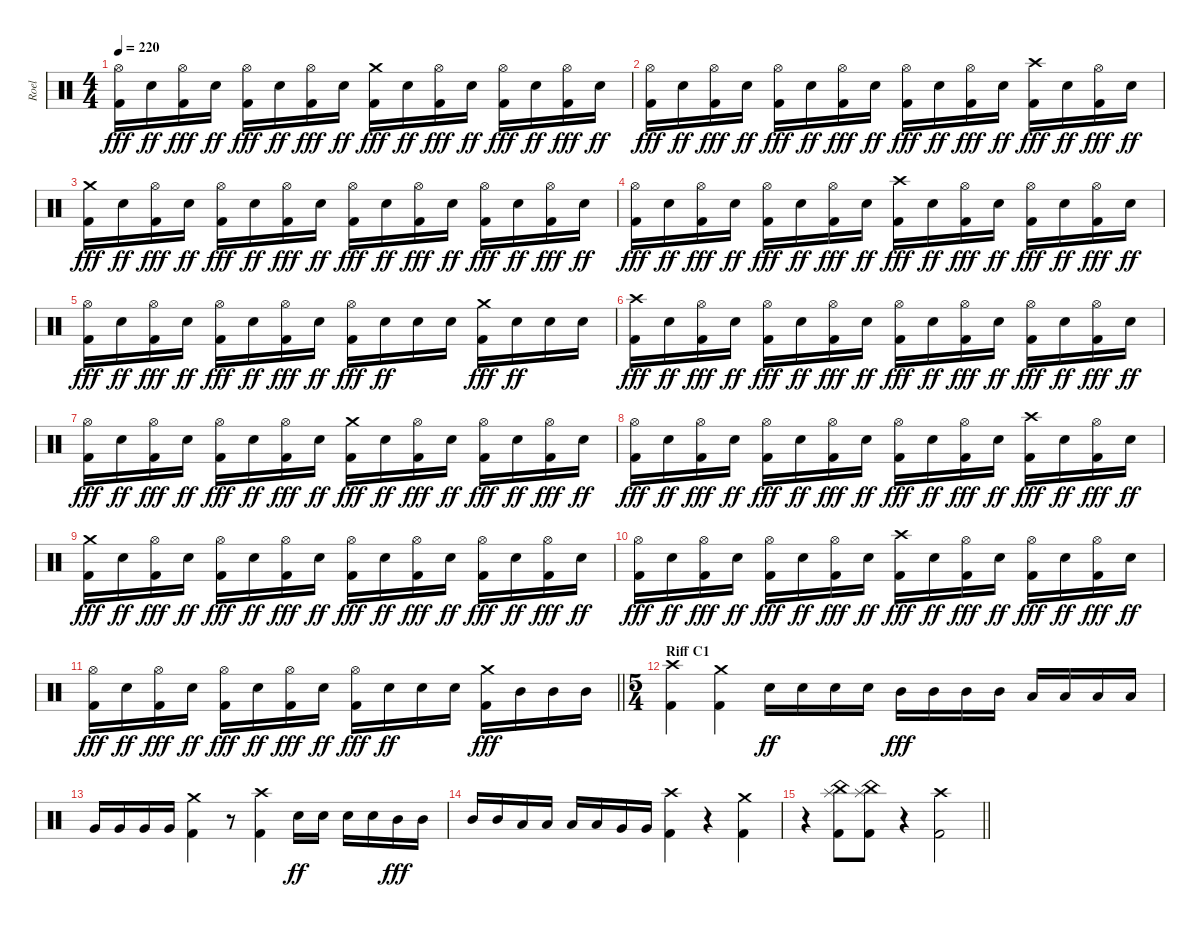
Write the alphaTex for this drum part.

\track ("Roel" "Roel") {instrument percussion}
\staff {score}
\articulation defaults
\ts (4 4)
\tempo 220
\clef neutral
\ks c
("Hi-Hat (open)" "Kick (hit) 2").16{dy fff} "Snare (hit) 2".16{dy ff} ("Hi-Hat (open)" "Kick (hit) 2").16{dy fff} "Snare (hit) 2".16{dy ff} ("Hi-Hat (open)" "Kick (hit) 2").16{dy fff} "Snare (hit) 2".16{dy ff} ("Hi-Hat (open)" "Kick (hit) 2").16{dy fff} "Snare (hit) 2".16{dy ff} ("Crash medium (hit)" "Kick (hit) 2").16{dy fff} "Snare (hit) 2".16{dy ff} ("Hi-Hat (open)" "Kick (hit) 2").16{dy fff} "Snare (hit) 2".16{dy ff} ("Hi-Hat (open)" "Kick (hit) 2").16{dy fff} "Snare (hit) 2".16{dy ff} ("Hi-Hat (open)" "Kick (hit) 2").16{dy fff} "Snare (hit) 2".16{dy ff} |
("Hi-Hat (open)" "Kick (hit) 2").16{dy fff} "Snare (hit) 2".16{dy ff} ("Hi-Hat (open)" "Kick (hit) 2").16{dy fff} "Snare (hit) 2".16{dy ff} ("Hi-Hat (open)" "Kick (hit) 2").16{dy fff} "Snare (hit) 2".16{dy ff} ("Hi-Hat (open)" "Kick (hit) 2").16{dy fff} "Snare (hit) 2".16{dy ff} ("Hi-Hat (open)" "Kick (hit) 2").16{dy fff} "Snare (hit) 2".16{dy ff} ("Hi-Hat (open)" "Kick (hit) 2").16{dy fff} "Snare (hit) 2".16{dy ff} ("Crash high (hit)" "Kick (hit) 2").16{dy fff} "Snare (hit) 2".16{dy ff} ("Hi-Hat (open)" "Kick (hit) 2").16{dy fff} "Snare (hit) 2".16{dy ff} |
("Crash medium (hit)" "Kick (hit) 2").16{dy fff} "Snare (hit) 2".16{dy ff} ("Hi-Hat (open)" "Kick (hit) 2").16{dy fff} "Snare (hit) 2".16{dy ff} ("Hi-Hat (open)" "Kick (hit) 2").16{dy fff} "Snare (hit) 2".16{dy ff} ("Hi-Hat (open)" "Kick (hit) 2").16{dy fff} "Snare (hit) 2".16{dy ff} ("Hi-Hat (open)" "Kick (hit) 2").16{dy fff} "Snare (hit) 2".16{dy ff} ("Hi-Hat (open)" "Kick (hit) 2").16{dy fff} "Snare (hit) 2".16{dy ff} ("Hi-Hat (open)" "Kick (hit) 2").16{dy fff} "Snare (hit) 2".16{dy ff} ("Hi-Hat (open)" "Kick (hit) 2").16{dy fff} "Snare (hit) 2".16{dy ff} |
("Hi-Hat (open)" "Kick (hit) 2").16{dy fff} "Snare (hit) 2".16{dy ff} ("Hi-Hat (open)" "Kick (hit) 2").16{dy fff} "Snare (hit) 2".16{dy ff} ("Hi-Hat (open)" "Kick (hit) 2").16{dy fff} "Snare (hit) 2".16{dy ff} ("Hi-Hat (open)" "Kick (hit) 2").16{dy fff} "Snare (hit) 2".16{dy ff} ("Crash high (hit)" "Kick (hit) 2").16{dy fff} "Snare (hit) 2".16{dy ff} ("Hi-Hat (open)" "Kick (hit) 2").16{dy fff} "Snare (hit) 2".16{dy ff} ("Hi-Hat (open)" "Kick (hit) 2").16{dy fff} "Snare (hit) 2".16{dy ff} ("Hi-Hat (open)" "Kick (hit) 2").16{dy fff} "Snare (hit) 2".16{dy ff} |
("Hi-Hat (open)" "Kick (hit) 2").16{dy fff} "Snare (hit) 2".16{dy ff} ("Hi-Hat (open)" "Kick (hit) 2").16{dy fff} "Snare (hit) 2".16{dy ff} ("Hi-Hat (open)" "Kick (hit) 2").16{dy fff} "Snare (hit) 2".16{dy ff} ("Hi-Hat (open)" "Kick (hit) 2").16{dy fff} "Snare (hit) 2".16{dy ff} ("Hi-Hat (open)" "Kick (hit) 2").16{dy fff} "Snare (hit) 2".16{dy ff} "Snare (hit) 2".16 "Snare (hit) 2".16 ("Crash medium (hit)" "Kick (hit) 2").16{dy fff} "Snare (hit) 2".16{dy ff} "Snare (hit) 2".16 "Snare (hit) 2".16 |
("Crash high (hit)" "Kick (hit) 2").16{dy fff} "Snare (hit) 2".16{dy ff} ("Hi-Hat (open)" "Kick (hit) 2").16{dy fff} "Snare (hit) 2".16{dy ff} ("Hi-Hat (open)" "Kick (hit) 2").16{dy fff} "Snare (hit) 2".16{dy ff} ("Hi-Hat (open)" "Kick (hit) 2").16{dy fff} "Snare (hit) 2".16{dy ff} ("Hi-Hat (open)" "Kick (hit) 2").16{dy fff} "Snare (hit) 2".16{dy ff} ("Hi-Hat (open)" "Kick (hit) 2").16{dy fff} "Snare (hit) 2".16{dy ff} ("Hi-Hat (open)" "Kick (hit) 2").16{dy fff} "Snare (hit) 2".16{dy ff} ("Hi-Hat (open)" "Kick (hit) 2").16{dy fff} "Snare (hit) 2".16{dy ff} |
("Hi-Hat (open)" "Kick (hit) 2").16{dy fff} "Snare (hit) 2".16{dy ff} ("Hi-Hat (open)" "Kick (hit) 2").16{dy fff} "Snare (hit) 2".16{dy ff} ("Hi-Hat (open)" "Kick (hit) 2").16{dy fff} "Snare (hit) 2".16{dy ff} ("Hi-Hat (open)" "Kick (hit) 2").16{dy fff} "Snare (hit) 2".16{dy ff} ("Crash medium (hit)" "Kick (hit) 2").16{dy fff} "Snare (hit) 2".16{dy ff} ("Hi-Hat (open)" "Kick (hit) 2").16{dy fff} "Snare (hit) 2".16{dy ff} ("Hi-Hat (open)" "Kick (hit) 2").16{dy fff} "Snare (hit) 2".16{dy ff} ("Hi-Hat (open)" "Kick (hit) 2").16{dy fff} "Snare (hit) 2".16{dy ff} |
("Hi-Hat (open)" "Kick (hit) 2").16{dy fff} "Snare (hit) 2".16{dy ff} ("Hi-Hat (open)" "Kick (hit) 2").16{dy fff} "Snare (hit) 2".16{dy ff} ("Hi-Hat (open)" "Kick (hit) 2").16{dy fff} "Snare (hit) 2".16{dy ff} ("Hi-Hat (open)" "Kick (hit) 2").16{dy fff} "Snare (hit) 2".16{dy ff} ("Hi-Hat (open)" "Kick (hit) 2").16{dy fff} "Snare (hit) 2".16{dy ff} ("Hi-Hat (open)" "Kick (hit) 2").16{dy fff} "Snare (hit) 2".16{dy ff} ("Crash high (hit)" "Kick (hit) 2").16{dy fff} "Snare (hit) 2".16{dy ff} ("Hi-Hat (open)" "Kick (hit) 2").16{dy fff} "Snare (hit) 2".16{dy ff} |
("Crash medium (hit)" "Kick (hit) 2").16{dy fff} "Snare (hit) 2".16{dy ff} ("Hi-Hat (open)" "Kick (hit) 2").16{dy fff} "Snare (hit) 2".16{dy ff} ("Hi-Hat (open)" "Kick (hit) 2").16{dy fff} "Snare (hit) 2".16{dy ff} ("Hi-Hat (open)" "Kick (hit) 2").16{dy fff} "Snare (hit) 2".16{dy ff} ("Hi-Hat (open)" "Kick (hit) 2").16{dy fff} "Snare (hit) 2".16{dy ff} ("Hi-Hat (open)" "Kick (hit) 2").16{dy fff} "Snare (hit) 2".16{dy ff} ("Hi-Hat (open)" "Kick (hit) 2").16{dy fff} "Snare (hit) 2".16{dy ff} ("Hi-Hat (open)" "Kick (hit) 2").16{dy fff} "Snare (hit) 2".16{dy ff} |
("Hi-Hat (open)" "Kick (hit) 2").16{dy fff} "Snare (hit) 2".16{dy ff} ("Hi-Hat (open)" "Kick (hit) 2").16{dy fff} "Snare (hit) 2".16{dy ff} ("Hi-Hat (open)" "Kick (hit) 2").16{dy fff} "Snare (hit) 2".16{dy ff} ("Hi-Hat (open)" "Kick (hit) 2").16{dy fff} "Snare (hit) 2".16{dy ff} ("Crash high (hit)" "Kick (hit) 2").16{dy fff} "Snare (hit) 2".16{dy ff} ("Hi-Hat (open)" "Kick (hit) 2").16{dy fff} "Snare (hit) 2".16{dy ff} ("Hi-Hat (open)" "Kick (hit) 2").16{dy fff} "Snare (hit) 2".16{dy ff} ("Hi-Hat (open)" "Kick (hit) 2").16{dy fff} "Snare (hit) 2".16{dy ff} |
\barLineRight lightlight
("Hi-Hat (open)" "Kick (hit) 2").16{dy fff} "Snare (hit) 2".16{dy ff} ("Hi-Hat (open)" "Kick (hit) 2").16{dy fff} "Snare (hit) 2".16{dy ff} ("Hi-Hat (open)" "Kick (hit) 2").16{dy fff} "Snare (hit) 2".16{dy ff} ("Hi-Hat (open)" "Kick (hit) 2").16{dy fff} "Snare (hit) 2".16{dy ff} ("Hi-Hat (open)" "Kick (hit) 2").16{dy fff} "Snare (hit) 2".16{dy ff} "Snare (hit) 2".16 "Snare (hit) 2".16 ("Crash medium (hit)" "Kick (hit) 2").16{dy fff} "Mid Tom (hit)".16 "Mid Tom (hit)".16 "Mid Tom (hit)".16 |
\ts (5 4)
\section ("" "Riff C1")
("Crash high (hit)" "Kick (hit) 2").4 ("Crash medium (hit)" "Kick (hit) 2").4 "Snare (hit) 2".16{dy ff} "Snare (hit) 2".16 "Snare (hit) 2".16 "Snare (hit) 2".16 "Mid Tom (hit)".16{dy fff} "Mid Tom (hit)".16 "Mid Tom (hit)".16 "Mid Tom (hit)".16 "Low Tom (hit)".16 "Low Tom (hit)".16 "Low Tom (hit)".16 "Low Tom (hit)".16 |
"Very Low Tom (hit)".16 "Very Low Tom (hit)".16 "Very Low Tom (hit)".16 "Very Low Tom (hit)".16 ("Crash medium (hit)" "Kick (hit) 2").4 r.8 ("Crash high (hit)" "Kick (hit) 2").4 "Snare (hit) 2".16{dy ff} "Snare (hit) 2".16 "Snare (hit) 2".16 "Snare (hit) 2".16 "Mid Tom (hit)".16{dy fff} "Mid Tom (hit)".16 |
"Mid Tom (hit)".16 "Mid Tom (hit)".16 "Low Tom (hit)".16 "Low Tom (hit)".16 "Low Tom (hit)".16 "Low Tom (hit)".16 "Very Low Tom (hit)".16 "Very Low Tom (hit)".16 ("Crash high (hit)" "Kick (hit) 2").4 r.4 ("Crash medium (hit)" "Kick (hit) 2").4 |
\barLineRight lightlight
r.4 ("Splash (hit)" "China (hit)" "Kick (hit) 2").8 ("Splash (hit)" "China (hit)" "Kick (hit) 2").8 r.4 ("Crash high (hit)" "Kick (hit) 2").2
